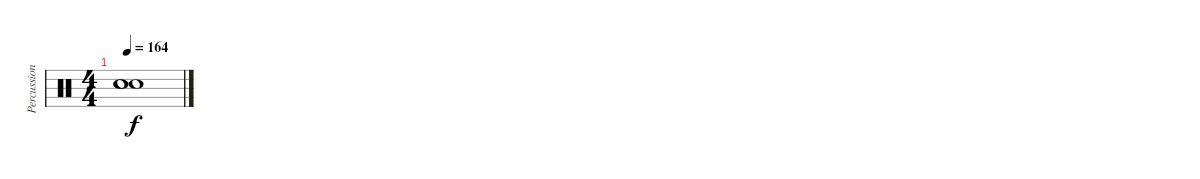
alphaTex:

\track ("Percussions" "Percussion") {instrument percussion}
\staff {score}
\articulation defaults
\ts (4 4)
\tempo 164
\clef neutral
\ks c
("Snare (hit)"{t} "Snare (hit)"{t} "Snare (hit)"{t}).1{dy f}
